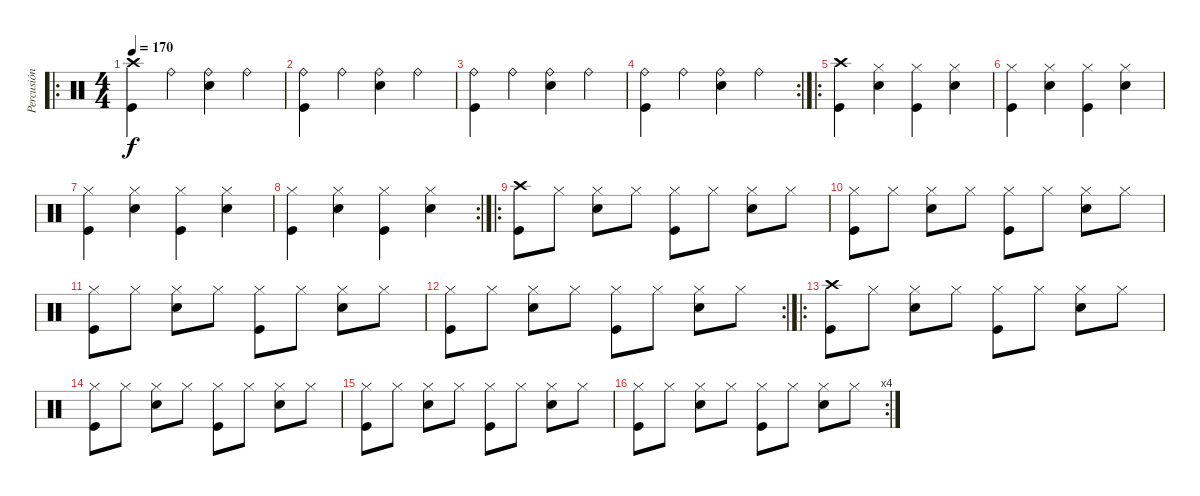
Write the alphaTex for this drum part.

\track ("Percusión" "Percusión") {instrument percussion}
\staff {score}
\articulation defaults
\ro
\ts (4 4)
\tempo 170
\clef neutral
\ks c
("Kick (hit)" "Crash high (hit)").4{dy f} "Ride (bell)".4 ("Snare (hit) 2" "Ride (bell)").4 "Ride (bell)".4 |
("Kick (hit)" "Ride (bell)").4 "Ride (bell)".4 ("Snare (hit) 2" "Ride (bell)").4 "Ride (bell)".4 |
("Kick (hit)" "Ride (bell)").4 "Ride (bell)".4 ("Snare (hit) 2" "Ride (bell)").4 "Ride (bell)".4 |
\rc 2
("Kick (hit)" "Ride (bell)").4 "Ride (bell)".4 ("Snare (hit) 2" "Ride (bell)").4 "Ride (bell)".4 |
\ro
("Kick (hit)" "Crash high (hit)").4 ("Snare (hit) 2" "Hi-Hat (closed)").4 ("Kick (hit)" "Hi-Hat (closed)").4 ("Snare (hit) 2" "Hi-Hat (closed)").4 |
("Kick (hit)" "Hi-Hat (closed)").4 ("Snare (hit) 2" "Hi-Hat (closed)").4 ("Kick (hit)" "Hi-Hat (closed)").4 ("Snare (hit) 2" "Hi-Hat (closed)").4 |
("Kick (hit)" "Hi-Hat (closed)").4 ("Snare (hit) 2" "Hi-Hat (closed)").4 ("Kick (hit)" "Hi-Hat (closed)").4 ("Snare (hit) 2" "Hi-Hat (closed)").4 |
\rc 2
("Kick (hit)" "Hi-Hat (closed)").4 ("Snare (hit) 2" "Hi-Hat (closed)").4 ("Kick (hit)" "Hi-Hat (closed)").4 ("Snare (hit) 2" "Hi-Hat (closed)").4 |
\ro
("Kick (hit)" "Crash high (hit)").8 "Hi-Hat (closed)".8 ("Snare (hit) 2" "Hi-Hat (closed)").8 "Hi-Hat (closed)".8 ("Kick (hit)" "Hi-Hat (closed)").8 "Hi-Hat (closed)".8 ("Snare (hit) 2" "Hi-Hat (closed)").8 "Hi-Hat (closed)".8 |
("Kick (hit)" "Hi-Hat (closed)").8 "Hi-Hat (closed)".8 ("Snare (hit) 2" "Hi-Hat (closed)").8 "Hi-Hat (closed)".8 ("Kick (hit)" "Hi-Hat (closed)").8 "Hi-Hat (closed)".8 ("Snare (hit) 2" "Hi-Hat (closed)").8 "Hi-Hat (closed)".8 |
("Kick (hit)" "Hi-Hat (closed)").8 "Hi-Hat (closed)".8 ("Snare (hit) 2" "Hi-Hat (closed)").8 "Hi-Hat (closed)".8 ("Kick (hit)" "Hi-Hat (closed)").8 "Hi-Hat (closed)".8 ("Snare (hit) 2" "Hi-Hat (closed)").8 "Hi-Hat (closed)".8 |
\rc 2
("Kick (hit)" "Hi-Hat (closed)").8 "Hi-Hat (closed)".8 ("Snare (hit) 2" "Hi-Hat (closed)").8 "Hi-Hat (closed)".8 ("Kick (hit)" "Hi-Hat (closed)").8 "Hi-Hat (closed)".8 ("Snare (hit) 2" "Hi-Hat (closed)").8 "Hi-Hat (closed)".8 |
\ro
("Kick (hit)" "Crash high (hit)").8 "Hi-Hat (closed)".8 ("Snare (hit) 2" "Hi-Hat (closed)").8 "Hi-Hat (closed)".8 ("Kick (hit)" "Hi-Hat (closed)").8 "Hi-Hat (closed)".8 ("Snare (hit) 2" "Hi-Hat (closed)").8 "Hi-Hat (closed)".8 |
("Kick (hit)" "Hi-Hat (closed)").8 "Hi-Hat (closed)".8 ("Snare (hit) 2" "Hi-Hat (closed)").8 "Hi-Hat (closed)".8 ("Kick (hit)" "Hi-Hat (closed)").8 "Hi-Hat (closed)".8 ("Snare (hit) 2" "Hi-Hat (closed)").8 "Hi-Hat (closed)".8 |
("Kick (hit)" "Hi-Hat (closed)").8 "Hi-Hat (closed)".8 ("Snare (hit) 2" "Hi-Hat (closed)").8 "Hi-Hat (closed)".8 ("Kick (hit)" "Hi-Hat (closed)").8 "Hi-Hat (closed)".8 ("Snare (hit) 2" "Hi-Hat (closed)").8 "Hi-Hat (closed)".8 |
\rc 4
("Kick (hit)" "Hi-Hat (closed)").8 "Hi-Hat (closed)".8 ("Snare (hit) 2" "Hi-Hat (closed)").8 "Hi-Hat (closed)".8 ("Kick (hit)" "Hi-Hat (closed)").8 "Hi-Hat (closed)".8 ("Snare (hit) 2" "Hi-Hat (closed)").8 "Hi-Hat (closed)".8
